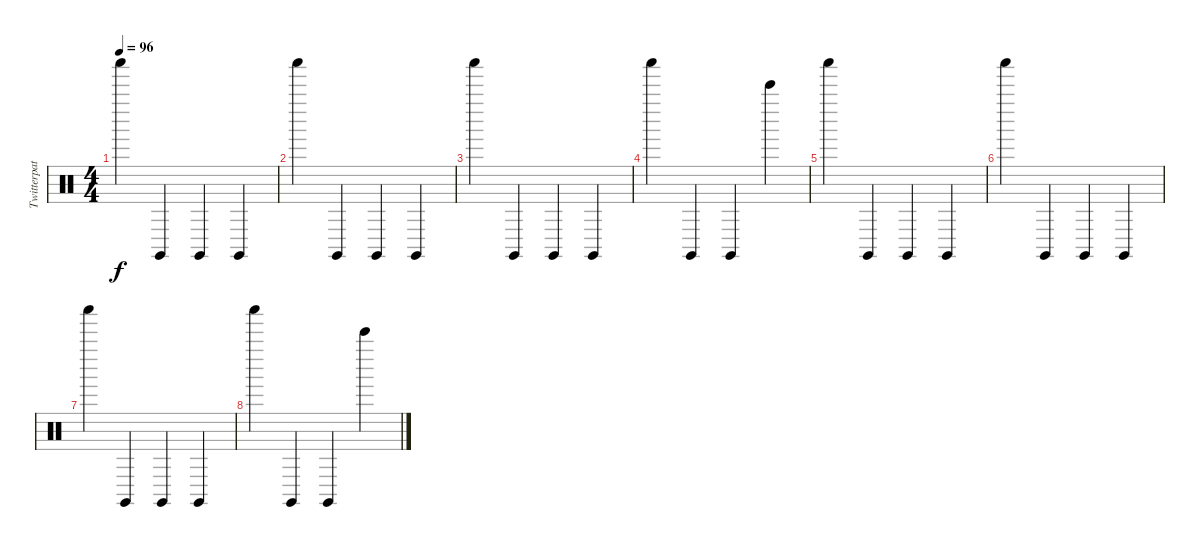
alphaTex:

\track ("Twitterpated" "Twitterpat") {instrument percussion}
\staff {score}
\articulation defaults
\ts (4 4)
\tempo 96
\clef neutral
\ks c "Shaker (hit)".4{dy f} "Claves (hit)".4 "Claves (hit)".4 "Claves (hit)".4
|
"Shaker (hit)".4 "Claves (hit)".4 "Claves (hit)".4 "Claves (hit)".4 |
"Shaker (hit)".4 "Claves (hit)".4 "Claves (hit)".4 "Claves (hit)".4 |
"Shaker (hit)".4 "Claves (hit)".4 "Claves (hit)".4 "Bell Tree (hit)".4 |
"Shaker (hit)".4 "Claves (hit)".4 "Claves (hit)".4 "Claves (hit)".4 |
"Shaker (hit)".4 "Claves (hit)".4 "Claves (hit)".4 "Claves (hit)".4 |
"Shaker (hit)".4 "Claves (hit)".4 "Claves (hit)".4 "Claves (hit)".4 |
"Shaker (hit)".4 "Claves (hit)".4 "Claves (hit)".4 "Bell Tree (hit)".4
